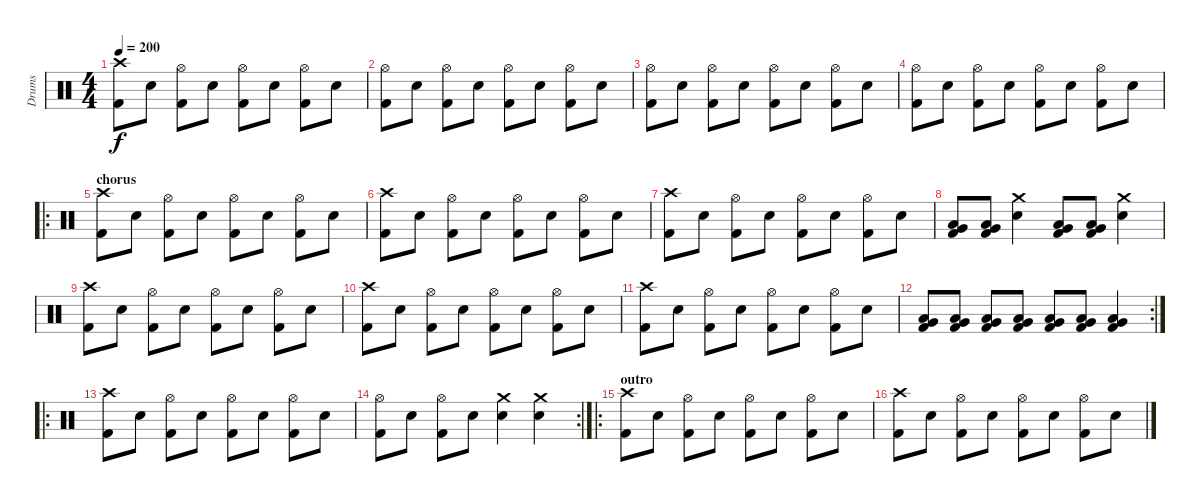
\track ("Drums" "Drums") {instrument percussion}
\staff {score}
\articulation defaults
\ts (4 4)
\tempo 200
\clef neutral
\ks c
("Crash high (hit)" "Kick (hit) 2").8{dy f} "Electric Snare (hit)".8 ("Hi-Hat (open)" "Kick (hit) 2").8 "Electric Snare (hit)".8 ("Hi-Hat (open)" "Kick (hit) 2").8 "Electric Snare (hit)".8 ("Hi-Hat (open)" "Kick (hit) 2").8 "Electric Snare (hit)".8 |
("Hi-Hat (open)" "Kick (hit) 2").8 "Electric Snare (hit)".8 ("Hi-Hat (open)" "Kick (hit) 2").8 "Electric Snare (hit)".8 ("Hi-Hat (open)" "Kick (hit) 2").8 "Electric Snare (hit)".8 ("Hi-Hat (open)" "Kick (hit) 2").8 "Electric Snare (hit)".8 |
("Hi-Hat (open)" "Kick (hit) 2").8 "Electric Snare (hit)".8 ("Hi-Hat (open)" "Kick (hit) 2").8 "Electric Snare (hit)".8 ("Hi-Hat (open)" "Kick (hit) 2").8 "Electric Snare (hit)".8 ("Hi-Hat (open)" "Kick (hit) 2").8 "Electric Snare (hit)".8 |
("Hi-Hat (open)" "Kick (hit) 2").8 "Electric Snare (hit)".8 ("Hi-Hat (open)" "Kick (hit) 2").8 "Electric Snare (hit)".8 ("Hi-Hat (open)" "Kick (hit) 2").8 "Electric Snare (hit)".8 ("Hi-Hat (open)" "Kick (hit) 2").8 "Electric Snare (hit)".8 |
\ro
\section ("" "chorus")
("Crash high (hit)" "Kick (hit) 2").8 "Electric Snare (hit)".8 ("Hi-Hat (open)" "Kick (hit) 2").8 "Electric Snare (hit)".8 ("Hi-Hat (open)" "Kick (hit) 2").8 "Electric Snare (hit)".8 ("Hi-Hat (open)" "Kick (hit) 2").8 "Electric Snare (hit)".8 |
("Crash high (hit)" "Kick (hit) 2").8 "Electric Snare (hit)".8 ("Hi-Hat (open)" "Kick (hit) 2").8 "Electric Snare (hit)".8 ("Hi-Hat (open)" "Kick (hit) 2").8 "Electric Snare (hit)".8 ("Hi-Hat (open)" "Kick (hit) 2").8 "Electric Snare (hit)".8 |
("Crash high (hit)" "Kick (hit) 2").8 "Electric Snare (hit)".8 ("Hi-Hat (open)" "Kick (hit) 2").8 "Electric Snare (hit)".8 ("Hi-Hat (open)" "Kick (hit) 2").8 "Electric Snare (hit)".8 ("Hi-Hat (open)" "Kick (hit) 2").8 "Electric Snare (hit)".8 |
("Very Low Tom (hit)" "Low Floor Tom (hit)" "Kick (hit) 2").8 ("Very Low Tom (hit)" "Low Floor Tom (hit)" "Kick (hit) 2").8 ("Crash medium (hit)" "Electric Snare (hit)").4 ("Very Low Tom (hit)" "Low Floor Tom (hit)" "Kick (hit) 2").8 ("Very Low Tom (hit)" "Low Floor Tom (hit)" "Kick (hit) 2").8 ("Crash medium (hit)" "Electric Snare (hit)").4 |
("Crash high (hit)" "Kick (hit) 2").8 "Electric Snare (hit)".8 ("Hi-Hat (open)" "Kick (hit) 2").8 "Electric Snare (hit)".8 ("Hi-Hat (open)" "Kick (hit) 2").8 "Electric Snare (hit)".8 ("Hi-Hat (open)" "Kick (hit) 2").8 "Electric Snare (hit)".8 |
("Crash high (hit)" "Kick (hit) 2").8 "Electric Snare (hit)".8 ("Hi-Hat (open)" "Kick (hit) 2").8 "Electric Snare (hit)".8 ("Hi-Hat (open)" "Kick (hit) 2").8 "Electric Snare (hit)".8 ("Hi-Hat (open)" "Kick (hit) 2").8 "Electric Snare (hit)".8 |
("Crash high (hit)" "Kick (hit) 2").8 "Electric Snare (hit)".8 ("Hi-Hat (open)" "Kick (hit) 2").8 "Electric Snare (hit)".8 ("Hi-Hat (open)" "Kick (hit) 2").8 "Electric Snare (hit)".8 ("Hi-Hat (open)" "Kick (hit) 2").8 "Electric Snare (hit)".8 |
\rc 2
("Very Low Tom (hit)" "Low Floor Tom (hit)" "Kick (hit) 2").8 ("Very Low Tom (hit)" "Low Floor Tom (hit)" "Kick (hit) 2").8 ("Very Low Tom (hit)" "Low Floor Tom (hit)" "Kick (hit) 2").8 ("Very Low Tom (hit)" "Low Floor Tom (hit)" "Kick (hit) 2").8 ("Very Low Tom (hit)" "Low Floor Tom (hit)" "Kick (hit) 2").8 ("Very Low Tom (hit)" "Low Floor Tom (hit)" "Kick (hit) 2").8 ("Very Low Tom (hit)" "Low Floor Tom (hit)" "Kick (hit) 2").4 |
\ro
("Crash high (hit)" "Kick (hit) 2").8 "Electric Snare (hit)".8 ("Hi-Hat (open)" "Kick (hit) 2").8 "Electric Snare (hit)".8 ("Hi-Hat (open)" "Kick (hit) 2").8 "Electric Snare (hit)".8 ("Hi-Hat (open)" "Kick (hit) 2").8 "Electric Snare (hit)".8 |
\rc 2
("Hi-Hat (open)" "Kick (hit) 2").8 "Electric Snare (hit)".8 ("Hi-Hat (open)" "Kick (hit) 2").8 "Electric Snare (hit)".8 ("Crash medium (hit)" "Electric Snare (hit)").4 ("Crash medium (hit)" "Electric Snare (hit)").4 |
\ro
\section ("" "outro")
("Crash high (hit)" "Kick (hit) 2").8 "Electric Snare (hit)".8 ("Hi-Hat (open)" "Kick (hit) 2").8 "Electric Snare (hit)".8 ("Hi-Hat (open)" "Kick (hit) 2").8 "Electric Snare (hit)".8 ("Hi-Hat (open)" "Kick (hit) 2").8 "Electric Snare (hit)".8 |
("Crash high (hit)" "Kick (hit) 2").8 "Electric Snare (hit)".8 ("Hi-Hat (open)" "Kick (hit) 2").8 "Electric Snare (hit)".8 ("Hi-Hat (open)" "Kick (hit) 2").8 "Electric Snare (hit)".8 ("Hi-Hat (open)" "Kick (hit) 2").8 "Electric Snare (hit)".8
